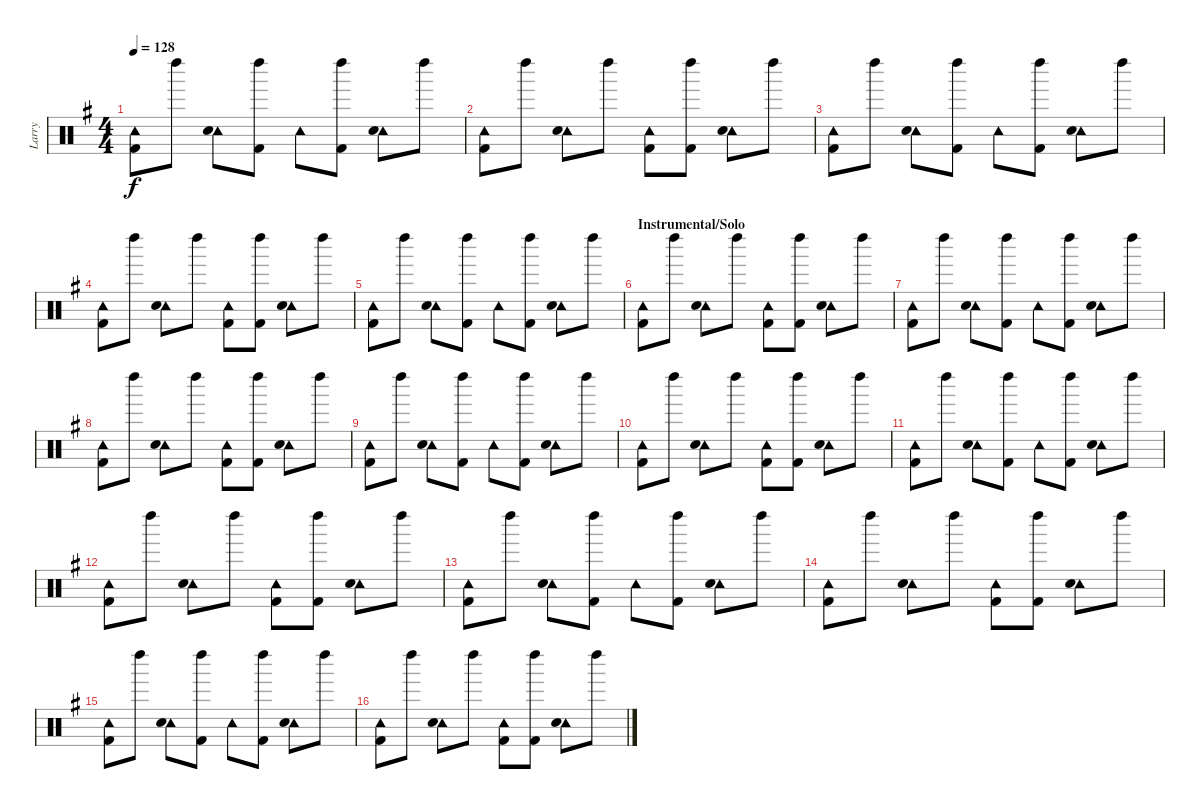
\track ("Larry" "Larry") {instrument percussion}
\staff {score}
\articulation defaults
\ts (4 4)
\tempo 128
\clef neutral
\ks g
("Tambourine (hit)" "Kick (hit) 2").8{dy f} "Left Maraca (hit)".8 ("Tambourine (hit)" "Snare (hit) 2").8 ("Left Maraca (hit)" "Kick (hit) 2").8 "Tambourine (hit)".8 ("Left Maraca (hit)" "Kick (hit) 2").8 ("Tambourine (hit)" "Snare (hit) 2").8 "Left Maraca (hit)".8 |
("Tambourine (hit)" "Kick (hit) 2").8 "Left Maraca (hit)".8 ("Tambourine (hit)" "Snare (hit) 2").8 "Left Maraca (hit)".8 ("Tambourine (hit)" "Kick (hit) 2").8 ("Left Maraca (hit)" "Kick (hit) 2").8 ("Tambourine (hit)" "Snare (hit) 2").8 "Left Maraca (hit)".8 |
("Tambourine (hit)" "Kick (hit) 2").8 "Left Maraca (hit)".8 ("Tambourine (hit)" "Snare (hit) 2").8 ("Left Maraca (hit)" "Kick (hit) 2").8 "Tambourine (hit)".8 ("Left Maraca (hit)" "Kick (hit) 2").8 ("Tambourine (hit)" "Snare (hit) 2").8 "Left Maraca (hit)".8 |
("Tambourine (hit)" "Kick (hit) 2").8 "Left Maraca (hit)".8 ("Tambourine (hit)" "Snare (hit) 2").8 "Left Maraca (hit)".8 ("Tambourine (hit)" "Kick (hit) 2").8 ("Left Maraca (hit)" "Kick (hit) 2").8 ("Tambourine (hit)" "Snare (hit) 2").8 "Left Maraca (hit)".8 |
("Tambourine (hit)" "Kick (hit) 2").8 "Left Maraca (hit)".8 ("Tambourine (hit)" "Snare (hit) 2").8 ("Left Maraca (hit)" "Kick (hit) 2").8 "Tambourine (hit)".8 ("Left Maraca (hit)" "Kick (hit) 2").8 ("Tambourine (hit)" "Snare (hit) 2").8 "Left Maraca (hit)".8 |
\section ("" "Instrumental/Solo")
("Tambourine (hit)" "Kick (hit) 2").8 "Left Maraca (hit)".8 ("Tambourine (hit)" "Snare (hit) 2").8 "Left Maraca (hit)".8 ("Tambourine (hit)" "Kick (hit) 2").8 ("Left Maraca (hit)" "Kick (hit) 2").8 ("Tambourine (hit)" "Snare (hit) 2").8 "Left Maraca (hit)".8 |
("Tambourine (hit)" "Kick (hit) 2").8 "Left Maraca (hit)".8 ("Tambourine (hit)" "Snare (hit) 2").8 ("Left Maraca (hit)" "Kick (hit) 2").8 "Tambourine (hit)".8 ("Left Maraca (hit)" "Kick (hit) 2").8 ("Tambourine (hit)" "Snare (hit) 2").8 "Left Maraca (hit)".8 |
("Tambourine (hit)" "Kick (hit) 2").8 "Left Maraca (hit)".8 ("Tambourine (hit)" "Snare (hit) 2").8 "Left Maraca (hit)".8 ("Tambourine (hit)" "Kick (hit) 2").8 ("Left Maraca (hit)" "Kick (hit) 2").8 ("Tambourine (hit)" "Snare (hit) 2").8 "Left Maraca (hit)".8 |
("Tambourine (hit)" "Kick (hit) 2").8 "Left Maraca (hit)".8 ("Tambourine (hit)" "Snare (hit) 2").8 ("Left Maraca (hit)" "Kick (hit) 2").8 "Tambourine (hit)".8 ("Left Maraca (hit)" "Kick (hit) 2").8 ("Tambourine (hit)" "Snare (hit) 2").8 "Left Maraca (hit)".8 |
("Tambourine (hit)" "Kick (hit) 2").8 "Left Maraca (hit)".8 ("Tambourine (hit)" "Snare (hit) 2").8 "Left Maraca (hit)".8 ("Tambourine (hit)" "Kick (hit) 2").8 ("Left Maraca (hit)" "Kick (hit) 2").8 ("Tambourine (hit)" "Snare (hit) 2").8 "Left Maraca (hit)".8 |
("Tambourine (hit)" "Kick (hit) 2").8 "Left Maraca (hit)".8 ("Tambourine (hit)" "Snare (hit) 2").8 ("Left Maraca (hit)" "Kick (hit) 2").8 "Tambourine (hit)".8 ("Left Maraca (hit)" "Kick (hit) 2").8 ("Tambourine (hit)" "Snare (hit) 2").8 "Left Maraca (hit)".8 |
("Tambourine (hit)" "Kick (hit) 2").8 "Left Maraca (hit)".8 ("Tambourine (hit)" "Snare (hit) 2").8 "Left Maraca (hit)".8 ("Tambourine (hit)" "Kick (hit) 2").8 ("Left Maraca (hit)" "Kick (hit) 2").8 ("Tambourine (hit)" "Snare (hit) 2").8 "Left Maraca (hit)".8 |
("Tambourine (hit)" "Kick (hit) 2").8 "Left Maraca (hit)".8 ("Tambourine (hit)" "Snare (hit) 2").8 ("Left Maraca (hit)" "Kick (hit) 2").8 "Tambourine (hit)".8 ("Left Maraca (hit)" "Kick (hit) 2").8 ("Tambourine (hit)" "Snare (hit) 2").8 "Left Maraca (hit)".8 |
("Tambourine (hit)" "Kick (hit) 2").8 "Left Maraca (hit)".8 ("Tambourine (hit)" "Snare (hit) 2").8 "Left Maraca (hit)".8 ("Tambourine (hit)" "Kick (hit) 2").8 ("Left Maraca (hit)" "Kick (hit) 2").8 ("Tambourine (hit)" "Snare (hit) 2").8 "Left Maraca (hit)".8 |
("Tambourine (hit)" "Kick (hit) 2").8 "Left Maraca (hit)".8 ("Tambourine (hit)" "Snare (hit) 2").8 ("Left Maraca (hit)" "Kick (hit) 2").8 "Tambourine (hit)".8 ("Left Maraca (hit)" "Kick (hit) 2").8 ("Tambourine (hit)" "Snare (hit) 2").8 "Left Maraca (hit)".8 |
("Tambourine (hit)" "Kick (hit) 2").8 "Left Maraca (hit)".8 ("Tambourine (hit)" "Snare (hit) 2").8 "Left Maraca (hit)".8 ("Tambourine (hit)" "Kick (hit) 2").8 ("Left Maraca (hit)" "Kick (hit) 2").8 ("Tambourine (hit)" "Snare (hit) 2").8 "Left Maraca (hit)".8
